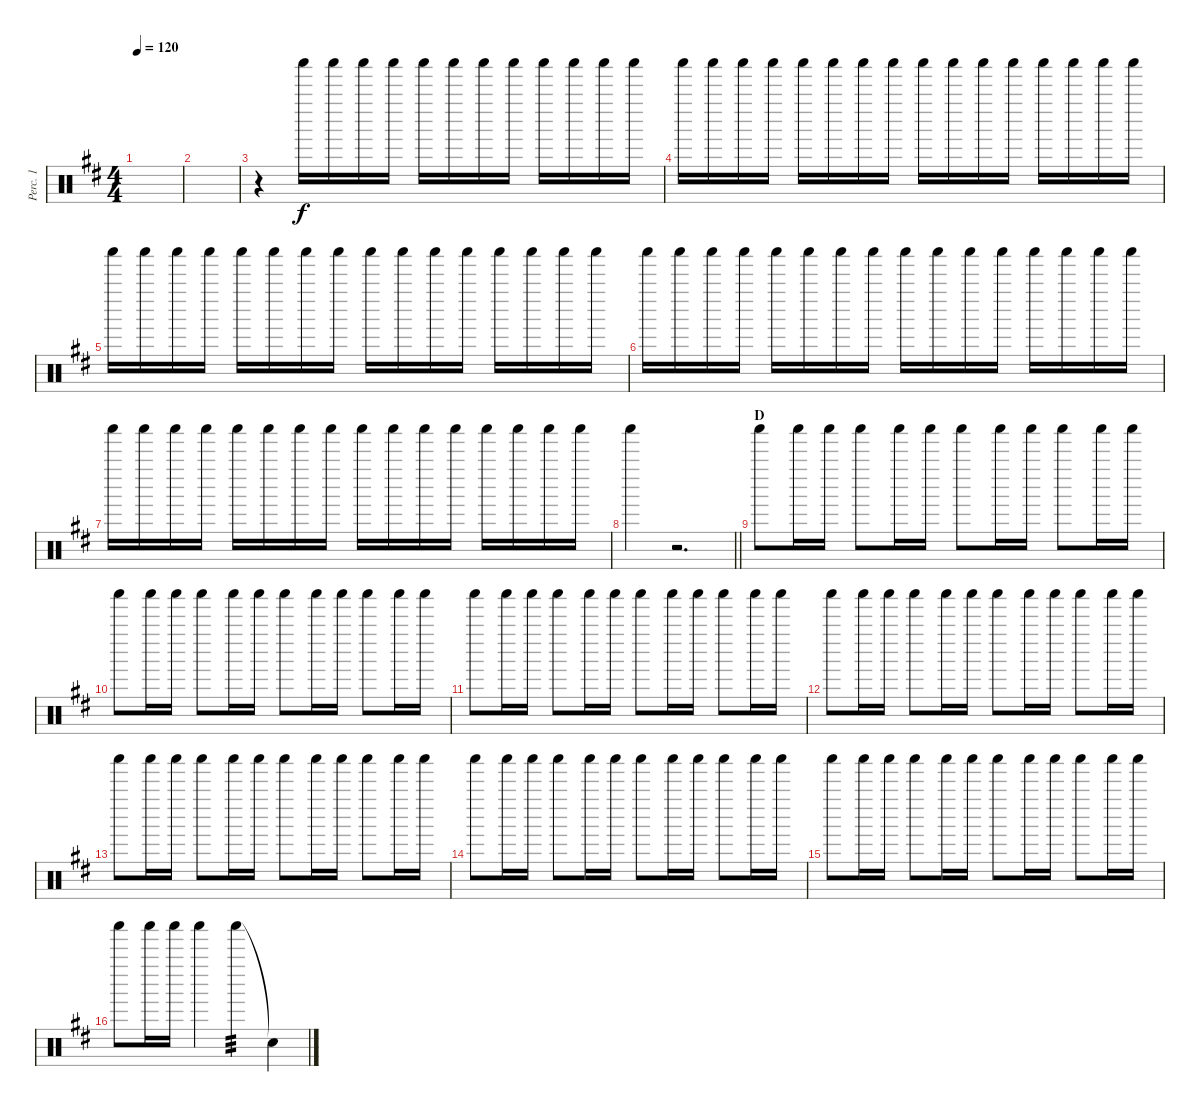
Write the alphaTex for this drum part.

\track ("Perc. 1" "Perc. 1") {instrument percussion}
\staff {score}
\articulation defaults
\ts (4 4)
\tempo 120
\clef neutral
\ks d
|
|
r.4 "Shaker (hit)".16 "Shaker (hit)".16 "Shaker (hit)".16 "Shaker (hit)".16 "Shaker (hit)".16 "Shaker (hit)".16 "Shaker (hit)".16 "Shaker (hit)".16 "Shaker (hit)".16 "Shaker (hit)".16 "Shaker (hit)".16 "Shaker (hit)".16 |
"Shaker (hit)".16 "Shaker (hit)".16 "Shaker (hit)".16 "Shaker (hit)".16 "Shaker (hit)".16 "Shaker (hit)".16 "Shaker (hit)".16 "Shaker (hit)".16 "Shaker (hit)".16 "Shaker (hit)".16 "Shaker (hit)".16 "Shaker (hit)".16 "Shaker (hit)".16 "Shaker (hit)".16 "Shaker (hit)".16 "Shaker (hit)".16 |
"Shaker (hit)".16 "Shaker (hit)".16 "Shaker (hit)".16 "Shaker (hit)".16 "Shaker (hit)".16 "Shaker (hit)".16 "Shaker (hit)".16 "Shaker (hit)".16 "Shaker (hit)".16 "Shaker (hit)".16 "Shaker (hit)".16 "Shaker (hit)".16 "Shaker (hit)".16 "Shaker (hit)".16 "Shaker (hit)".16 "Shaker (hit)".16 |
"Shaker (hit)".16 "Shaker (hit)".16 "Shaker (hit)".16 "Shaker (hit)".16 "Shaker (hit)".16 "Shaker (hit)".16 "Shaker (hit)".16 "Shaker (hit)".16 "Shaker (hit)".16 "Shaker (hit)".16 "Shaker (hit)".16 "Shaker (hit)".16 "Shaker (hit)".16 "Shaker (hit)".16 "Shaker (hit)".16 "Shaker (hit)".16 |
"Shaker (hit)".16 "Shaker (hit)".16 "Shaker (hit)".16 "Shaker (hit)".16 "Shaker (hit)".16 "Shaker (hit)".16 "Shaker (hit)".16 "Shaker (hit)".16 "Shaker (hit)".16 "Shaker (hit)".16 "Shaker (hit)".16 "Shaker (hit)".16 "Shaker (hit)".16 "Shaker (hit)".16 "Shaker (hit)".16 "Shaker (hit)".16 |
\barLineRight lightlight "Shaker (hit)".4
r.2{d} |
\section ("" "D")
"Shaker (hit)".8 "Shaker (hit)".16 "Shaker (hit)".16 "Shaker (hit)".8 "Shaker (hit)".16 "Shaker (hit)".16 "Shaker (hit)".8 "Shaker (hit)".16 "Shaker (hit)".16 "Shaker (hit)".8 "Shaker (hit)".16 "Shaker (hit)".16 |
"Shaker (hit)".8 "Shaker (hit)".16 "Shaker (hit)".16 "Shaker (hit)".8 "Shaker (hit)".16 "Shaker (hit)".16 "Shaker (hit)".8 "Shaker (hit)".16 "Shaker (hit)".16 "Shaker (hit)".8 "Shaker (hit)".16 "Shaker (hit)".16 |
"Shaker (hit)".8 "Shaker (hit)".16 "Shaker (hit)".16 "Shaker (hit)".8 "Shaker (hit)".16 "Shaker (hit)".16 "Shaker (hit)".8 "Shaker (hit)".16 "Shaker (hit)".16 "Shaker (hit)".8 "Shaker (hit)".16 "Shaker (hit)".16 |
"Shaker (hit)".8 "Shaker (hit)".16 "Shaker (hit)".16 "Shaker (hit)".8 "Shaker (hit)".16 "Shaker (hit)".16 "Shaker (hit)".8 "Shaker (hit)".16 "Shaker (hit)".16 "Shaker (hit)".8 "Shaker (hit)".16 "Shaker (hit)".16 |
"Shaker (hit)".8 "Shaker (hit)".16 "Shaker (hit)".16 "Shaker (hit)".8 "Shaker (hit)".16 "Shaker (hit)".16 "Shaker (hit)".8 "Shaker (hit)".16 "Shaker (hit)".16 "Shaker (hit)".8 "Shaker (hit)".16 "Shaker (hit)".16 |
"Shaker (hit)".8 "Shaker (hit)".16 "Shaker (hit)".16 "Shaker (hit)".8 "Shaker (hit)".16 "Shaker (hit)".16 "Shaker (hit)".8 "Shaker (hit)".16 "Shaker (hit)".16 "Shaker (hit)".8 "Shaker (hit)".16 "Shaker (hit)".16 |
"Shaker (hit)".8 "Shaker (hit)".16 "Shaker (hit)".16 "Shaker (hit)".8 "Shaker (hit)".16 "Shaker (hit)".16 "Shaker (hit)".8 "Shaker (hit)".16 "Shaker (hit)".16 "Shaker (hit)".8 "Shaker (hit)".16 "Shaker (hit)".16 |
"Shaker (hit)".8 "Shaker (hit)".16 "Shaker (hit)".16 "Shaker (hit)".4 "Shaker (hit)".4{tp 3} "Snare (hit)"{t}.4{dy f}
